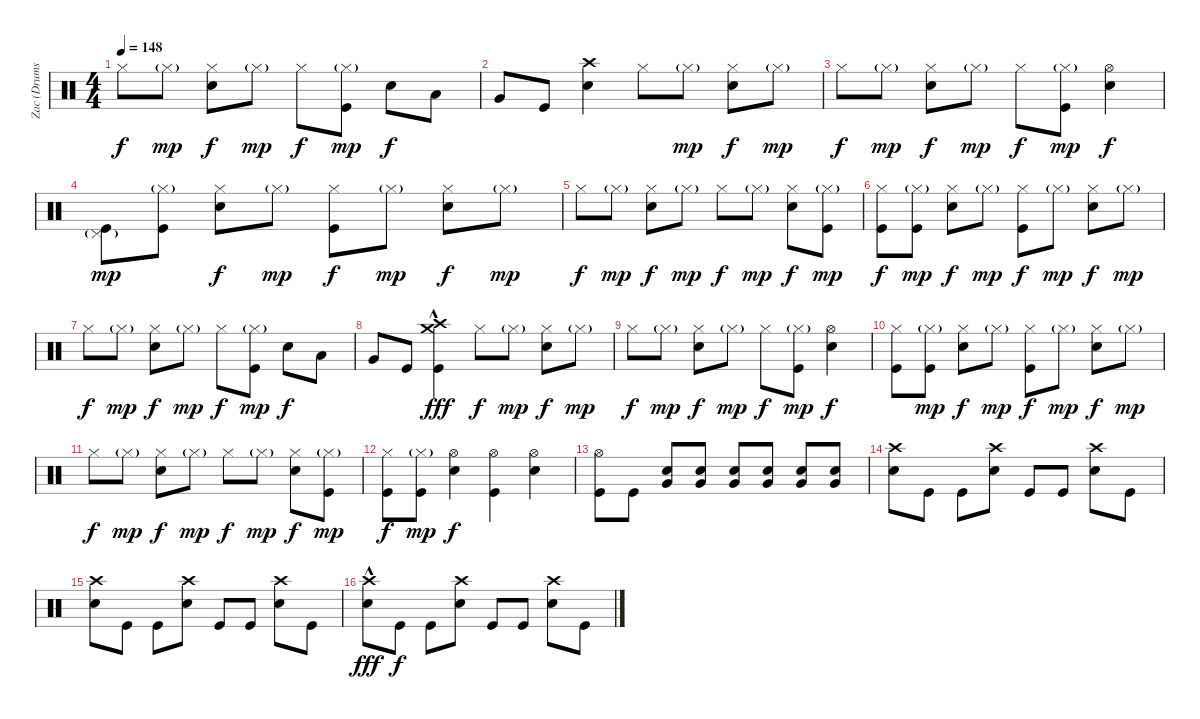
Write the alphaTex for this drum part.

\track ("Zac (Drums)" "Zac (Drums") {instrument percussion}
\staff {score}
\articulation defaults
\ts (4 4)
\tempo 148
\clef neutral
\ks c "Hi-Hat (closed)".8{dy f} "Hi-Hat (closed)"{g}.8{dy mp}
("Hi-Hat (closed)" "Electric Snare (hit)").8{dy f} "Hi-Hat (closed)"{g}.8{dy mp} "Hi-Hat (closed)".8{dy f} ("Hi-Hat (closed)"{g} "Kick (hit)").8{dy mp} "Electric Snare (hit)".8{dy f} "Low Tom (hit)".8 |
"Very Low Tom (hit)".8 "Kick (hit)".8 ("Crash high (hit)" "Electric Snare (hit)").4 "Hi-Hat (closed)".8 "Hi-Hat (closed)"{g}.8{dy mp} ("Hi-Hat (closed)" "Electric Snare (hit)").8{dy f} "Hi-Hat (closed)"{g}.8{dy mp} |
"Hi-Hat (closed)".8{dy f} "Hi-Hat (closed)"{g}.8{dy mp} ("Hi-Hat (closed)" "Electric Snare (hit)").8{dy f} "Hi-Hat (closed)"{g}.8{dy mp} "Hi-Hat (closed)".8{dy f} ("Hi-Hat (closed)"{g} "Kick (hit)").8{dy mp} ("Hi-Hat (open)" "Electric Snare (hit)").4{dy f} |
("Pedal Hi-Hat (hit)"{g} "Kick (hit)").8{dy mp} ("Hi-Hat (closed)"{g} "Kick (hit)").8 ("Hi-Hat (closed)" "Electric Snare (hit)").8{dy f} "Hi-Hat (closed)"{g}.8{dy mp} ("Hi-Hat (closed)" "Kick (hit)").8{dy f} "Hi-Hat (closed)"{g}.8{dy mp} ("Hi-Hat (closed)" "Electric Snare (hit)").8{dy f} "Hi-Hat (closed)"{g}.8{dy mp} |
"Hi-Hat (closed)".8{dy f} "Hi-Hat (closed)"{g}.8{dy mp} ("Hi-Hat (closed)" "Electric Snare (hit)").8{dy f} "Hi-Hat (closed)"{g}.8{dy mp} "Hi-Hat (closed)".8{dy f} "Hi-Hat (closed)"{g}.8{dy mp} ("Hi-Hat (closed)" "Electric Snare (hit)").8{dy f} ("Hi-Hat (closed)"{g} "Kick (hit)").8{dy mp} |
("Hi-Hat (closed)" "Kick (hit)").8{dy f} ("Hi-Hat (closed)"{g} "Kick (hit)").8{dy mp} ("Hi-Hat (closed)" "Electric Snare (hit)").8{dy f} "Hi-Hat (closed)"{g}.8{dy mp} ("Hi-Hat (closed)" "Kick (hit)").8{dy f} "Hi-Hat (closed)"{g}.8{dy mp} ("Hi-Hat (closed)" "Electric Snare (hit)").8{dy f} "Hi-Hat (closed)"{g}.8{dy mp} |
"Hi-Hat (closed)".8{dy f} "Hi-Hat (closed)"{g}.8{dy mp} ("Hi-Hat (closed)" "Electric Snare (hit)").8{dy f} "Hi-Hat (closed)"{g}.8{dy mp} "Hi-Hat (closed)".8{dy f} ("Hi-Hat (closed)"{g} "Kick (hit)").8{dy mp} "Electric Snare (hit)".8{dy f} "Low Tom (hit)".8 |
"Very Low Tom (hit)".8 "Kick (hit)".8 ("Crash high (hit)"{hac} "Crash medium (hit)" "Kick (hit)").4{dy fff} "Hi-Hat (closed)".8{dy f} "Hi-Hat (closed)"{g}.8{dy mp} ("Hi-Hat (closed)" "Electric Snare (hit)").8{dy f} "Hi-Hat (closed)"{g}.8{dy mp} |
"Hi-Hat (closed)".8{dy f} "Hi-Hat (closed)"{g}.8{dy mp} ("Hi-Hat (closed)" "Electric Snare (hit)").8{dy f} "Hi-Hat (closed)"{g}.8{dy mp} "Hi-Hat (closed)".8{dy f} ("Hi-Hat (closed)"{g} "Kick (hit)").8{dy mp} ("Hi-Hat (open)" "Electric Snare (hit)").4{dy f} |
("Hi-Hat (closed)" "Kick (hit)").8 ("Hi-Hat (closed)"{g} "Kick (hit)").8{dy mp} ("Hi-Hat (closed)" "Electric Snare (hit)").8{dy f} "Hi-Hat (closed)"{g}.8{dy mp} ("Hi-Hat (closed)" "Kick (hit)").8{dy f} "Hi-Hat (closed)"{g}.8{dy mp} ("Hi-Hat (closed)" "Electric Snare (hit)").8{dy f} "Hi-Hat (closed)"{g}.8{dy mp} |
"Hi-Hat (closed)".8{dy f} "Hi-Hat (closed)"{g}.8{dy mp} ("Hi-Hat (closed)" "Electric Snare (hit)").8{dy f} "Hi-Hat (closed)"{g}.8{dy mp} "Hi-Hat (closed)".8{dy f} "Hi-Hat (closed)"{g}.8{dy mp} ("Hi-Hat (closed)" "Electric Snare (hit)").8{dy f} ("Hi-Hat (closed)"{g} "Kick (hit)").8{dy mp} |
("Hi-Hat (closed)" "Kick (hit)").8{dy f} ("Hi-Hat (closed)"{g} "Kick (hit)").8{dy mp} ("Hi-Hat (open)" "Electric Snare (hit)").4{dy f} ("Hi-Hat (open)" "Kick (hit)").4 ("Hi-Hat (open)" "Electric Snare (hit)").4 |
("Hi-Hat (open)" "Kick (hit)").8 "Kick (hit)".8 ("Electric Snare (hit)" "Very Low Tom (hit)").8 ("Electric Snare (hit)" "Very Low Tom (hit)").8 ("Electric Snare (hit)" "Very Low Tom (hit)").8 ("Electric Snare (hit)" "Very Low Tom (hit)").8 ("Electric Snare (hit)" "Very Low Tom (hit)").8 ("Electric Snare (hit)" "Very Low Tom (hit)").8 |
("Crash high (hit)" "Electric Snare (hit)").8 "Kick (hit)".8 "Kick (hit)".8 ("Crash high (hit)" "Electric Snare (hit)").8 "Kick (hit)".8 "Kick (hit)".8 ("Crash high (hit)" "Electric Snare (hit)").8 "Kick (hit)".8 |
("Crash high (hit)" "Electric Snare (hit)").8 "Kick (hit)".8 "Kick (hit)".8 ("Crash high (hit)" "Electric Snare (hit)").8 "Kick (hit)".8 "Kick (hit)".8 ("Crash high (hit)" "Electric Snare (hit)").8 "Kick (hit)".8 |
("Crash high (hit)"{hac} "Electric Snare (hit)").8{dy fff} "Kick (hit)".8{dy f} "Kick (hit)".8 ("Crash high (hit)" "Electric Snare (hit)").8 "Kick (hit)".8 "Kick (hit)".8 ("Crash high (hit)" "Electric Snare (hit)").8 "Kick (hit)".8
